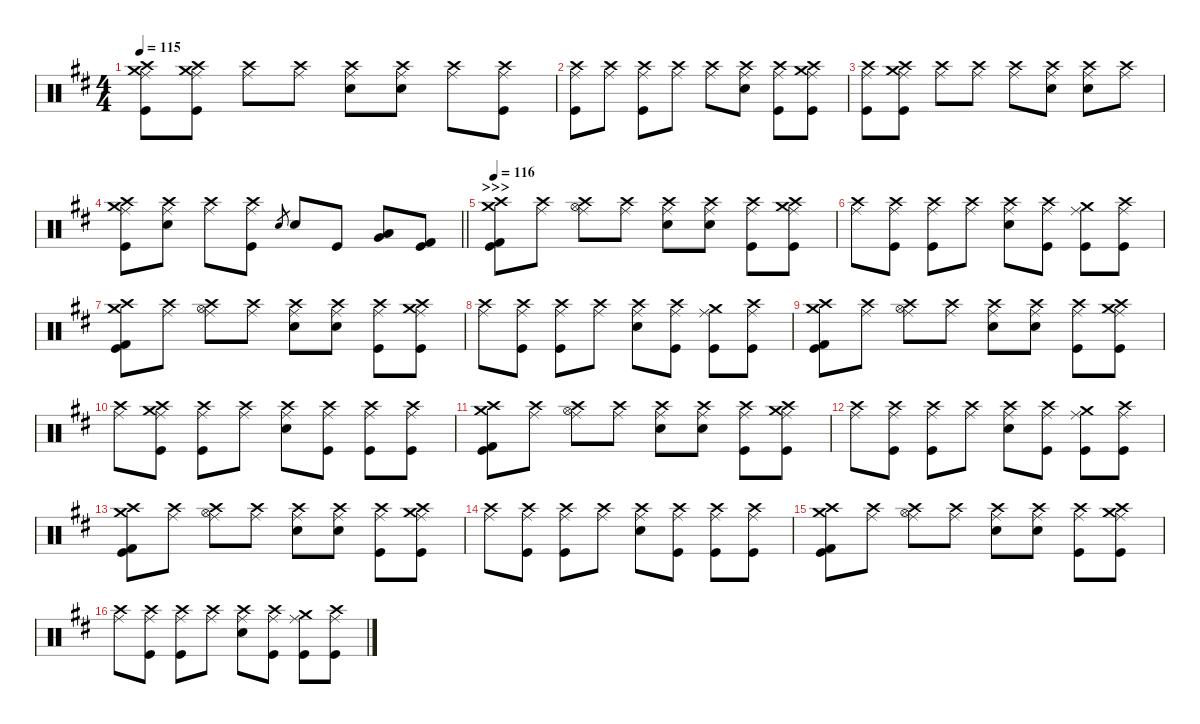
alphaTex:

\defaultSystemsLayout 4
\hideDynamics
\bracketExtendMode nobrackets
\singleTrackTrackNamePolicy hidden
\multiTrackTrackNamePolicy hidden
\firstSystemTrackNameMode fullname
\firstSystemTrackNameOrientation horizontal
\otherSystemsTrackNameOrientation horizontal
\track ("Aaron Harris" "drm.") {instrument percussion}
\staff {score}
\articulation defaults
\ts (4 4)
\tempo 115
\clef neutral
\ks bminor
("Crash medium (hit)"{acc forcenatural} "Crash high (hit)"{acc forcenatural} "Ride (middle)"{acc forcenatural} "Kick (hit)"{acc forcenatural}).8{dy f beam Down} ("Crash medium (hit)"{acc forcenatural} "Crash high (hit)"{acc forcenatural} "Ride (middle)"{acc forcenatural} "Kick (hit)"{acc forcenatural}).8{beam Down} ("Crash high (hit)"{acc forcenatural} "Ride (middle)"{acc forcenatural}).8{dy mp beam Down} ("Crash high (hit)"{acc forcenatural} "Ride (middle)"{acc forcenatural}).8{beam Down} ("Crash high (hit)"{acc forcenatural} "Ride (middle)"{acc forcenatural} "Snare (hit) 2"{acc forcenatural}).8{beam Down} ("Crash high (hit)"{acc forcenatural} "Ride (middle)"{acc forcenatural} "Snare (hit) 2"{acc forcenatural}).8{beam Down} ("Crash high (hit)"{acc forcenatural} "Ride (middle)"{acc forcenatural}).8{beam Down} ("Crash high (hit)"{acc forcenatural} "Ride (middle)"{acc forcenatural} "Kick (hit)"{acc forcenatural}).8{beam Down} |
("Crash high (hit)"{acc forcenatural} "Ride (middle)"{acc forcenatural} "Kick (hit)"{acc forcenatural}).8{dy p beam Down} ("Crash high (hit)"{acc forcenatural} "Ride (middle)"{acc forcenatural}).8{dy mp beam Down} ("Crash high (hit)"{acc forcenatural} "Ride (middle)"{acc forcenatural} "Kick (hit)"{acc forcenatural}).8{beam Down} ("Crash high (hit)"{acc forcenatural} "Ride (middle)"{acc forcenatural}).8{beam Down} ("Crash high (hit)"{acc forcenatural} "Ride (middle)"{acc forcenatural}).8{dy p beam Down} ("Crash high (hit)"{acc forcenatural} "Ride (middle)"{acc forcenatural} "Snare (hit) 2"{acc forcenatural}).8{dy mf beam Down} ("Crash high (hit)"{acc forcenatural} "Ride (middle)"{acc forcenatural} "Kick (hit)"{acc forcenatural}).8{dy mp beam Down} ("Crash medium (hit)"{acc forcenatural} "Crash high (hit)"{acc forcenatural} "Ride (middle)"{acc forcenatural} "Kick (hit)"{acc forcenatural}).8{beam Down} |
("Crash high (hit)"{acc forcenatural} "Ride (middle)"{acc forcenatural} "Kick (hit)"{acc forcenatural}).8{dy p beam Down} ("Crash medium (hit)"{acc forcenatural} "Crash high (hit)"{acc forcenatural} "Ride (middle)"{acc forcenatural} "Kick (hit)"{acc forcenatural}).8{dy f beam Down} ("Crash high (hit)"{acc forcenatural} "Ride (middle)"{acc forcenatural}).8{dy mp beam Down} ("Crash high (hit)"{acc forcenatural} "Ride (middle)"{acc forcenatural}).8{beam Down} ("Crash high (hit)"{acc forcenatural} "Ride (middle)"{acc forcenatural}).8{beam Down} ("Crash high (hit)"{acc forcenatural} "Ride (middle)"{acc forcenatural} "Snare (hit) 2"{acc forcenatural}).8{beam Down} ("Crash high (hit)"{acc forcenatural} "Ride (middle)"{acc forcenatural} "Snare (hit) 2"{acc forcenatural}).8{beam Down} ("Crash high (hit)"{acc forcenatural} "Ride (middle)"{acc forcenatural}).8{beam Down} |
\barLineRight lightlight
("Crash medium (hit)"{acc forcenatural} "Crash high (hit)"{acc forcenatural} "Ride (middle)"{acc forcenatural} "Kick (hit)"{acc forcenatural}).8{dy f beam Down} ("Crash high (hit)"{acc forcenatural} "Ride (middle)"{acc forcenatural} "Snare (hit) 2"{acc forcenatural}).8{dy mp beam Down} ("Crash high (hit)"{acc forcenatural} "Ride (middle)"{acc forcenatural}).8{beam Down} ("Crash high (hit)"{acc forcenatural} "Ride (middle)"{acc forcenatural} "Kick (hit)"{acc forcenatural}).8{beam Down} "Electric Snare (hit)"{acc forcenatural}.8{gr dy f beam Up} "Snare (hit) 2"{acc forcenatural}.8{dy ff beam Up} "Kick (hit)"{acc forcenatural}.8{dy f beam Up} ("Very Low Tom (hit)"{acc forcenatural} "Low Floor Tom (hit)"{acc forcenatural}).8{beam Up} ("Kick (hit) 2"{acc forcenatural} "Kick (hit)"{acc forcenatural}).8{beam Up} |
\section ("" ">>>")
\tempo 116
("Crash medium (hit)"{acc forcenatural} "Crash high (hit)"{acc forcenatural} "Kick (hit) 2"{acc forcenatural} "Kick (hit)"{acc forcenatural}).8{beam Down} ("Crash high (hit)"{acc forcenatural} "Ride (middle)"{acc forcenatural}).8{dy mp beam Down} ("Crash high (hit)"{acc forcenatural} "Hi-Hat (open)"{acc forcenatural} "Ride (middle)"{acc forcenatural}).8{beam Down} ("Crash high (hit)"{acc forcenatural} "Ride (middle)"{acc forcenatural}).8{dy p beam Down} ("Crash high (hit)"{acc forcenatural} "Ride (middle)"{acc forcenatural} "Snare (hit) 2"{acc forcenatural}).8{dy mf beam Down} ("Crash high (hit)"{acc forcenatural} "Ride (middle)"{acc forcenatural} "Snare (hit) 2"{acc forcenatural}).8{dy p beam Down} ("Crash high (hit)"{acc forcenatural} "Ride (middle)"{acc forcenatural} "Kick (hit)"{acc forcenatural}).8{beam Down} ("Crash medium (hit)"{acc forcenatural} "Crash high (hit)"{acc forcenatural} "Ride (middle)"{acc forcenatural} "Kick (hit)"{acc forcenatural}).8{dy f beam Down} |
("Crash high (hit)"{acc forcenatural} "Ride (middle)"{acc forcenatural}).8{dy p beam Down} ("Crash high (hit)"{acc forcenatural} "Ride (middle)"{acc forcenatural} "Kick (hit)"{acc forcenatural}).8{beam Down} ("Crash high (hit)"{acc forcenatural} "Ride (middle)"{acc forcenatural} "Kick (hit)"{acc forcenatural}).8{dy mp beam Down} ("Crash high (hit)"{acc forcenatural} "Ride (middle)"{acc forcenatural}).8{dy p beam Down} ("Crash high (hit)"{acc forcenatural} "Ride (middle)"{acc forcenatural} "Snare (hit) 2"{acc forcenatural}).8{beam Down} ("Crash high (hit)"{acc forcenatural} "Ride (middle)"{acc forcenatural} "Kick (hit)"{acc forcenatural}).8{dy f beam Down} ("Crash medium (hit)"{acc forcenatural} "Ride (middle)"{acc forcenatural} "Kick (hit)"{acc forcenatural}).8{beam Down} ("Crash high (hit)"{acc forcenatural} "Ride (middle)"{acc forcenatural} "Kick (hit)"{acc forcenatural}).8{beam Down} |
("Crash medium (hit)"{acc forcenatural} "Crash high (hit)"{acc forcenatural} "Kick (hit) 2"{acc forcenatural} "Kick (hit)"{acc forcenatural}).8{beam Down} ("Crash high (hit)"{acc forcenatural} "Ride (middle)"{acc forcenatural}).8{dy mp beam Down} ("Crash high (hit)"{acc forcenatural} "Hi-Hat (open)"{acc forcenatural} "Ride (middle)"{acc forcenatural}).8{beam Down} ("Crash high (hit)"{acc forcenatural} "Ride (middle)"{acc forcenatural}).8{dy p beam Down} ("Crash high (hit)"{acc forcenatural} "Ride (middle)"{acc forcenatural} "Snare (hit) 2"{acc forcenatural}).8{dy mf beam Down} ("Crash high (hit)"{acc forcenatural} "Ride (middle)"{acc forcenatural} "Snare (hit) 2"{acc forcenatural}).8{dy p beam Down} ("Crash high (hit)"{acc forcenatural} "Ride (middle)"{acc forcenatural} "Kick (hit)"{acc forcenatural}).8{beam Down} ("Crash medium (hit)"{acc forcenatural} "Crash high (hit)"{acc forcenatural} "Ride (middle)"{acc forcenatural} "Kick (hit)"{acc forcenatural}).8{dy f beam Down} |
("Crash high (hit)"{acc forcenatural} "Ride (middle)"{acc forcenatural}).8{dy p beam Down} ("Crash high (hit)"{acc forcenatural} "Ride (middle)"{acc forcenatural} "Kick (hit)"{acc forcenatural}).8{beam Down} ("Crash high (hit)"{acc forcenatural} "Ride (middle)"{acc forcenatural} "Kick (hit)"{acc forcenatural}).8{dy mp beam Down} ("Crash high (hit)"{acc forcenatural} "Ride (middle)"{acc forcenatural}).8{dy p beam Down} ("Crash high (hit)"{acc forcenatural} "Ride (middle)"{acc forcenatural} "Snare (hit) 2"{acc forcenatural}).8{beam Down} ("Crash high (hit)"{acc forcenatural} "Ride (middle)"{acc forcenatural} "Kick (hit)"{acc forcenatural}).8{dy f beam Down} ("Crash medium (hit)"{acc forcenatural} "Ride (middle)"{acc forcenatural} "Kick (hit)"{acc forcenatural}).8{beam Down} ("Crash high (hit)"{acc forcenatural} "Ride (middle)"{acc forcenatural} "Kick (hit)"{acc forcenatural}).8{beam Down} |
("Crash medium (hit)"{acc forcenatural} "Crash high (hit)"{acc forcenatural} "Kick (hit) 2"{acc forcenatural} "Kick (hit)"{acc forcenatural}).8{beam Down} ("Crash high (hit)"{acc forcenatural} "Ride (middle)"{acc forcenatural}).8{dy mp beam Down} ("Crash high (hit)"{acc forcenatural} "Hi-Hat (open)"{acc forcenatural} "Ride (middle)"{acc forcenatural}).8{beam Down} ("Crash high (hit)"{acc forcenatural} "Ride (middle)"{acc forcenatural}).8{dy p beam Down} ("Crash high (hit)"{acc forcenatural} "Ride (middle)"{acc forcenatural} "Snare (hit) 2"{acc forcenatural}).8{dy mf beam Down} ("Crash high (hit)"{acc forcenatural} "Ride (middle)"{acc forcenatural} "Snare (hit) 2"{acc forcenatural}).8{dy p beam Down} ("Crash high (hit)"{acc forcenatural} "Ride (middle)"{acc forcenatural} "Kick (hit)"{acc forcenatural}).8{beam Down} ("Crash medium (hit)"{acc forcenatural} "Crash high (hit)"{acc forcenatural} "Ride (middle)"{acc forcenatural} "Kick (hit)"{acc forcenatural}).8{dy f beam Down} |
("Crash high (hit)"{acc forcenatural} "Ride (middle)"{acc forcenatural}).8{dy p beam Down} ("Crash medium (hit)"{acc forcenatural} "Crash high (hit)"{acc forcenatural} "Ride (middle)"{acc forcenatural} "Kick (hit)"{acc forcenatural}).8{dy f beam Down} ("Crash high (hit)"{acc forcenatural} "Ride (middle)"{acc forcenatural} "Kick (hit)"{acc forcenatural}).8{dy mp beam Down} ("Crash high (hit)"{acc forcenatural} "Ride (middle)"{acc forcenatural}).8{dy p beam Down} ("Crash high (hit)"{acc forcenatural} "Ride (middle)"{acc forcenatural} "Snare (hit) 2"{acc forcenatural}).8{beam Down} ("Crash high (hit)"{acc forcenatural} "Ride (middle)"{acc forcenatural} "Kick (hit)"{acc forcenatural}).8{beam Down} ("Crash high (hit)"{acc forcenatural} "Ride (middle)"{acc forcenatural} "Kick (hit)"{acc forcenatural}).8{beam Down} ("Crash high (hit)"{acc forcenatural} "Ride (middle)"{acc forcenatural} "Kick (hit)"{acc forcenatural}).8{beam Down} |
("Crash medium (hit)"{acc forcenatural} "Crash high (hit)"{acc forcenatural} "Kick (hit) 2"{acc forcenatural} "Kick (hit)"{acc forcenatural}).8{dy f beam Down} ("Crash high (hit)"{acc forcenatural} "Ride (middle)"{acc forcenatural}).8{dy mp beam Down} ("Crash high (hit)"{acc forcenatural} "Hi-Hat (open)"{acc forcenatural} "Ride (middle)"{acc forcenatural}).8{beam Down} ("Crash high (hit)"{acc forcenatural} "Ride (middle)"{acc forcenatural}).8{dy p beam Down} ("Crash high (hit)"{acc forcenatural} "Ride (middle)"{acc forcenatural} "Snare (hit) 2"{acc forcenatural}).8{dy mf beam Down} ("Crash high (hit)"{acc forcenatural} "Ride (middle)"{acc forcenatural} "Snare (hit) 2"{acc forcenatural}).8{dy p beam Down} ("Crash high (hit)"{acc forcenatural} "Ride (middle)"{acc forcenatural} "Kick (hit)"{acc forcenatural}).8{beam Down} ("Crash medium (hit)"{acc forcenatural} "Crash high (hit)"{acc forcenatural} "Ride (middle)"{acc forcenatural} "Kick (hit)"{acc forcenatural}).8{dy f beam Down} |
("Crash high (hit)"{acc forcenatural} "Ride (middle)"{acc forcenatural}).8{dy p beam Down} ("Crash high (hit)"{acc forcenatural} "Ride (middle)"{acc forcenatural} "Kick (hit)"{acc forcenatural}).8{beam Down} ("Crash high (hit)"{acc forcenatural} "Ride (middle)"{acc forcenatural} "Kick (hit)"{acc forcenatural}).8{dy mp beam Down} ("Crash high (hit)"{acc forcenatural} "Ride (middle)"{acc forcenatural}).8{dy p beam Down} ("Crash high (hit)"{acc forcenatural} "Ride (middle)"{acc forcenatural} "Snare (hit) 2"{acc forcenatural}).8{beam Down} ("Crash high (hit)"{acc forcenatural} "Ride (middle)"{acc forcenatural} "Kick (hit)"{acc forcenatural}).8{dy f beam Down} ("Crash medium (hit)"{acc forcenatural} "Ride (middle)"{acc forcenatural} "Kick (hit)"{acc forcenatural}).8{beam Down} ("Crash high (hit)"{acc forcenatural} "Ride (middle)"{acc forcenatural} "Kick (hit)"{acc forcenatural}).8{beam Down} |
("Crash medium (hit)"{acc forcenatural} "Crash high (hit)"{acc forcenatural} "Kick (hit) 2"{acc forcenatural} "Kick (hit)"{acc forcenatural}).8{beam Down} ("Crash high (hit)"{acc forcenatural} "Ride (middle)"{acc forcenatural}).8{dy mp beam Down} ("Crash high (hit)"{acc forcenatural} "Hi-Hat (open)"{acc forcenatural} "Ride (middle)"{acc forcenatural}).8{beam Down} ("Crash high (hit)"{acc forcenatural} "Ride (middle)"{acc forcenatural}).8{dy p beam Down} ("Crash high (hit)"{acc forcenatural} "Ride (middle)"{acc forcenatural} "Snare (hit) 2"{acc forcenatural}).8{dy mf beam Down} ("Crash high (hit)"{acc forcenatural} "Ride (middle)"{acc forcenatural} "Snare (hit) 2"{acc forcenatural}).8{dy p beam Down} ("Crash high (hit)"{acc forcenatural} "Ride (middle)"{acc forcenatural} "Kick (hit)"{acc forcenatural}).8{beam Down} ("Crash medium (hit)"{acc forcenatural} "Crash high (hit)"{acc forcenatural} "Ride (middle)"{acc forcenatural} "Kick (hit)"{acc forcenatural}).8{dy f beam Down} |
("Crash high (hit)"{acc forcenatural} "Ride (middle)"{acc forcenatural}).8{dy p beam Down} ("Crash high (hit)"{acc forcenatural} "Ride (middle)"{acc forcenatural} "Kick (hit)"{acc forcenatural}).8{beam Down} ("Crash high (hit)"{acc forcenatural} "Ride (middle)"{acc forcenatural} "Kick (hit)"{acc forcenatural}).8{dy mp beam Down} ("Crash high (hit)"{acc forcenatural} "Ride (middle)"{acc forcenatural}).8{dy p beam Down} ("Crash high (hit)"{acc forcenatural} "Ride (middle)"{acc forcenatural} "Snare (hit) 2"{acc forcenatural}).8{beam Down} ("Crash high (hit)"{acc forcenatural} "Ride (middle)"{acc forcenatural} "Kick (hit)"{acc forcenatural}).8{dy f beam Down} ("Crash high (hit)"{acc forcenatural} "Ride (middle)"{acc forcenatural} "Kick (hit)"{acc forcenatural}).8{dy mp beam Down} ("Crash high (hit)"{acc forcenatural} "Ride (middle)"{acc forcenatural} "Kick (hit)"{acc forcenatural}).8{dy f beam Down} |
("Crash medium (hit)"{acc forcenatural} "Crash high (hit)"{acc forcenatural} "Kick (hit) 2"{acc forcenatural} "Kick (hit)"{acc forcenatural}).8{beam Down} ("Crash high (hit)"{acc forcenatural} "Ride (middle)"{acc forcenatural}).8{dy mp beam Down} ("Crash high (hit)"{acc forcenatural} "Hi-Hat (open)"{acc forcenatural} "Ride (middle)"{acc forcenatural}).8{beam Down} ("Crash high (hit)"{acc forcenatural} "Ride (middle)"{acc forcenatural}).8{dy p beam Down} ("Crash high (hit)"{acc forcenatural} "Ride (middle)"{acc forcenatural} "Snare (hit) 2"{acc forcenatural}).8{dy mf beam Down} ("Crash high (hit)"{acc forcenatural} "Ride (middle)"{acc forcenatural} "Snare (hit) 2"{acc forcenatural}).8{dy p beam Down} ("Crash high (hit)"{acc forcenatural} "Ride (middle)"{acc forcenatural} "Kick (hit)"{acc forcenatural}).8{beam Down} ("Crash medium (hit)"{acc forcenatural} "Crash high (hit)"{acc forcenatural} "Ride (middle)"{acc forcenatural} "Kick (hit)"{acc forcenatural}).8{dy f beam Down} |
("Crash high (hit)"{acc forcenatural} "Ride (middle)"{acc forcenatural}).8{dy p beam Down} ("Crash high (hit)"{acc forcenatural} "Ride (middle)"{acc forcenatural} "Kick (hit)"{acc forcenatural}).8{dy f beam Down} ("Crash high (hit)"{acc forcenatural} "Ride (middle)"{acc forcenatural} "Kick (hit)"{acc forcenatural}).8{dy mp beam Down} ("Crash high (hit)"{acc forcenatural} "Ride (middle)"{acc forcenatural}).8{dy p beam Down} ("Crash high (hit)"{acc forcenatural} "Ride (middle)"{acc forcenatural} "Snare (hit) 2"{acc forcenatural}).8{beam Down} ("Crash high (hit)"{acc forcenatural} "Ride (middle)"{acc forcenatural} "Kick (hit)"{acc forcenatural}).8{dy f beam Down} ("Crash medium (hit)"{acc forcenatural} "Ride (middle)"{acc forcenatural} "Kick (hit)"{acc forcenatural}).8{beam Down} ("Crash high (hit)"{acc forcenatural} "Ride (middle)"{acc forcenatural} "Kick (hit)"{acc forcenatural}).8{beam Down}
